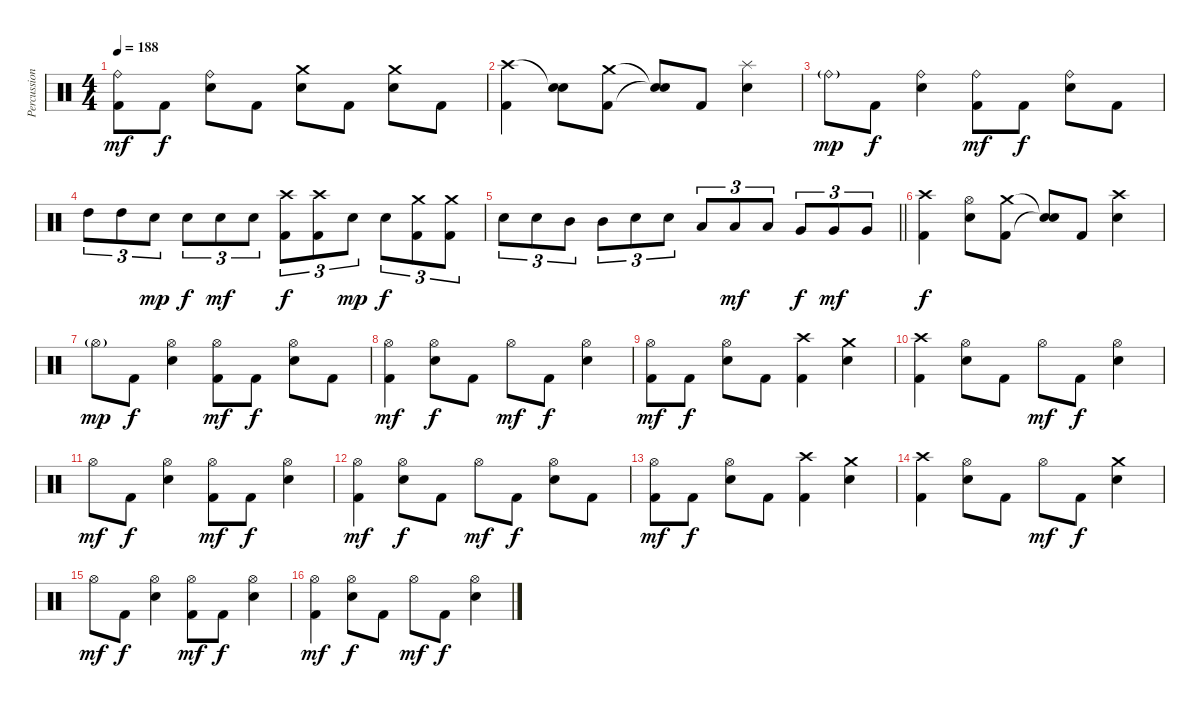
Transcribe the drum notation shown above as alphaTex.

\track ("Percussion" "Percussion") {instrument percussion}
\staff {score}
\articulation defaults
\ts (4 4)
\tempo 188
\clef neutral
\ks c
("Ride (bell)" "Kick (hit) 2").8{dy mf} "Kick (hit) 2".8{dy f} ("Ride (bell)" "Electric Snare (hit)").8 "Kick (hit) 2".8 ("Crash medium (hit)" "Electric Snare (hit)").8 "Kick (hit) 2".8 ("Crash medium (hit)" "Electric Snare (hit)").8 "Kick (hit) 2".8 |
("Crash high (hit)" "Kick (hit) 2").4 ("Snare (hit)"{t} "Electric Snare (hit)").8 ("Crash medium (hit)" "Kick (hit) 2").8 ("Snare (hit)"{t} "Snare (hit)"{t}).8 "Kick (hit) 2".8 ("Splash (hit)" "Electric Snare (hit)").4 |
"Ride (bell)"{g}.8{dy mp} "Kick (hit) 2".8{dy f} ("Ride (bell)" "Electric Snare (hit)").4 ("Ride (bell)" "Kick (hit) 2").8{dy mf} "Kick (hit) 2".8{dy f} ("Ride (bell)" "Electric Snare (hit)").8 "Kick (hit) 2".8 |
"High Tom (hit)".8{tu (3 2)} "High Tom (hit)".8{tu (3 2)} "Electric Snare (hit)".8{tu (3 2) dy mp} "Electric Snare (hit)".8{tu (3 2) dy f} "Electric Snare (hit)".8{tu (3 2) dy mf} "Electric Snare (hit)".8{tu (3 2)} ("Crash high (hit)" "Kick (hit) 2").8{tu (3 2) dy f} ("Crash high (hit)" "Kick (hit) 2").8{tu (3 2)} "Electric Snare (hit)".8{tu (3 2) dy mp} "Electric Snare (hit)".8{tu (3 2) dy f} ("Crash medium (hit)" "Kick (hit) 2").8{tu (3 2)} ("Crash medium (hit)" "Kick (hit) 2").8{tu (3 2)} |
\barLineRight lightlight "Electric Snare (hit)".8{tu (3 2)} "Electric Snare (hit)".8{tu (3 2)} "Mid Tom (hit)".8{tu (3 2)} "Mid Tom (hit)".8{tu (3 2)} "Electric Snare (hit)".8{tu (3 2)} "Electric Snare (hit)".8{tu (3 2)} "Low Tom (hit)".8{tu (3 2)} "Low Tom (hit)".8{tu (3 2) dy mf} "Low Tom (hit)".8{tu (3 2)} "Very Low Tom (hit)".8{tu (3 2) dy f} "Very Low Tom (hit)".8{tu (3 2) dy mf} "Very Low Tom (hit)".8{tu (3 2)}
|
("Crash high (hit)" "Kick (hit) 2").4{dy f} ("Hi-Hat (open)" "Electric Snare (hit)").8 ("Crash medium (hit)" "Kick (hit) 2").8 ("Snare (hit)"{t} "Snare (hit)"{t}).8 "Kick (hit) 2".8 ("Crash high (hit)" "Electric Snare (hit)").4 |
"Hi-Hat (open)"{g}.8{dy mp} "Kick (hit) 2".8{dy f} ("Hi-Hat (open)" "Electric Snare (hit)").4 ("Hi-Hat (open)" "Kick (hit) 2").8{dy mf} "Kick (hit) 2".8{dy f} ("Hi-Hat (open)" "Electric Snare (hit)").8 "Kick (hit) 2".8 |
("Hi-Hat (open)" "Kick (hit) 2").4{dy mf} ("Hi-Hat (open)" "Electric Snare (hit)").8{dy f} "Kick (hit) 2".8 "Hi-Hat (open)".8{dy mf} "Kick (hit) 2".8{dy f} ("Hi-Hat (open)" "Electric Snare (hit)").4 |
("Hi-Hat (open)" "Kick (hit) 2").8{dy mf} "Kick (hit) 2".8{dy f} ("Hi-Hat (open)" "Electric Snare (hit)").8 "Kick (hit) 2".8 ("Crash high (hit)" "Kick (hit) 2").4 ("Crash medium (hit)" "Electric Snare (hit)").4 |
("Crash high (hit)" "Kick (hit) 2").4 ("Hi-Hat (open)" "Electric Snare (hit)").8 "Kick (hit) 2".8 "Hi-Hat (open)".8{dy mf} "Kick (hit) 2".8{dy f} ("Hi-Hat (open)" "Electric Snare (hit)").4 |
"Hi-Hat (open)".8{dy mf} "Kick (hit) 2".8{dy f} ("Hi-Hat (open)" "Electric Snare (hit)").4 ("Hi-Hat (open)" "Kick (hit) 2").8{dy mf} "Kick (hit) 2".8{dy f} ("Hi-Hat (open)" "Electric Snare (hit)").4 |
("Hi-Hat (open)" "Kick (hit) 2").4{dy mf} ("Hi-Hat (open)" "Electric Snare (hit)").8{dy f} "Kick (hit) 2".8 "Hi-Hat (open)".8{dy mf} "Kick (hit) 2".8{dy f} ("Hi-Hat (open)" "Electric Snare (hit)").8 "Kick (hit) 2".8 |
("Hi-Hat (open)" "Kick (hit) 2").8{dy mf} "Kick (hit) 2".8{dy f} ("Hi-Hat (open)" "Electric Snare (hit)").8 "Kick (hit) 2".8 ("Crash high (hit)" "Kick (hit) 2").4 ("Crash medium (hit)" "Electric Snare (hit)").4 |
("Crash high (hit)" "Kick (hit) 2").4 ("Hi-Hat (open)" "Electric Snare (hit)").8 "Kick (hit) 2".8 "Hi-Hat (open)".8{dy mf} "Kick (hit) 2".8{dy f} ("Crash medium (hit)" "Electric Snare (hit)").4 |
"Hi-Hat (open)".8{dy mf} "Kick (hit) 2".8{dy f} ("Hi-Hat (open)" "Electric Snare (hit)").4 ("Hi-Hat (open)" "Kick (hit) 2").8{dy mf} "Kick (hit) 2".8{dy f} ("Hi-Hat (open)" "Electric Snare (hit)").4 |
("Hi-Hat (open)" "Kick (hit) 2").4{dy mf} ("Hi-Hat (open)" "Electric Snare (hit)").8{dy f} "Kick (hit) 2".8 "Hi-Hat (open)".8{dy mf} "Kick (hit) 2".8{dy f} ("Hi-Hat (open)" "Electric Snare (hit)").4
